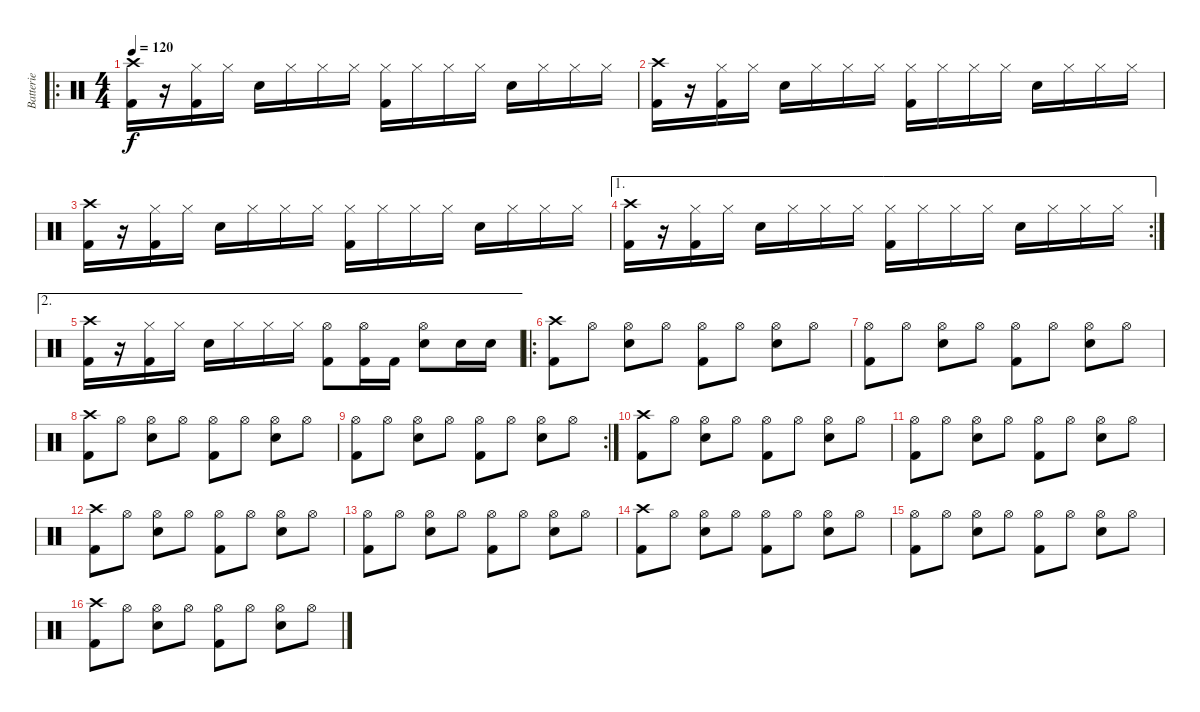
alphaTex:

\track ("Batterie" "Batterie") {instrument percussion}
\staff {score}
\articulation defaults
\ro
\ts (4 4)
\tempo 120
\clef neutral
\ks c
("Crash high (hit)" "Kick (hit) 2").16{dy f} r.16 ("Hi-Hat (closed)" "Kick (hit) 2").16 "Hi-Hat (closed)".16 "Snare (hit) 2".16 "Hi-Hat (closed)".16 "Hi-Hat (closed)".16 "Hi-Hat (closed)".16 ("Hi-Hat (closed)" "Kick (hit) 2").16 "Hi-Hat (closed)".16 "Hi-Hat (closed)".16 "Hi-Hat (closed)".16 "Snare (hit) 2".16 "Hi-Hat (closed)".16 "Hi-Hat (closed)".16 "Hi-Hat (closed)".16 |
("Crash high (hit)" "Kick (hit) 2").16 r.16 ("Hi-Hat (closed)" "Kick (hit) 2").16 "Hi-Hat (closed)".16 "Snare (hit) 2".16 "Hi-Hat (closed)".16 "Hi-Hat (closed)".16 "Hi-Hat (closed)".16 ("Hi-Hat (closed)" "Kick (hit) 2").16 "Hi-Hat (closed)".16 "Hi-Hat (closed)".16 "Hi-Hat (closed)".16 "Snare (hit) 2".16 "Hi-Hat (closed)".16 "Hi-Hat (closed)".16 "Hi-Hat (closed)".16 |
("Crash high (hit)" "Kick (hit) 2").16 r.16 ("Hi-Hat (closed)" "Kick (hit) 2").16 "Hi-Hat (closed)".16 "Snare (hit) 2".16 "Hi-Hat (closed)".16 "Hi-Hat (closed)".16 "Hi-Hat (closed)".16 ("Hi-Hat (closed)" "Kick (hit) 2").16 "Hi-Hat (closed)".16 "Hi-Hat (closed)".16 "Hi-Hat (closed)".16 "Snare (hit) 2".16 "Hi-Hat (closed)".16 "Hi-Hat (closed)".16 "Hi-Hat (closed)".16 |
\ae 1
\rc 2
("Crash high (hit)" "Kick (hit) 2").16 r.16 ("Hi-Hat (closed)" "Kick (hit) 2").16 "Hi-Hat (closed)".16 "Snare (hit) 2".16 "Hi-Hat (closed)".16 "Hi-Hat (closed)".16 "Hi-Hat (closed)".16 ("Hi-Hat (closed)" "Kick (hit) 2").16 "Hi-Hat (closed)".16 "Hi-Hat (closed)".16 "Hi-Hat (closed)".16 "Snare (hit) 2".16 "Hi-Hat (closed)".16 "Hi-Hat (closed)".16 "Hi-Hat (closed)".16 |
\ae 2
("Crash high (hit)" "Kick (hit) 2").16 r.16 ("Hi-Hat (closed)" "Kick (hit) 2").16 "Hi-Hat (closed)".16 "Snare (hit) 2".16 "Hi-Hat (closed)".16 "Hi-Hat (closed)".16 "Hi-Hat (closed)".16 ("Hi-Hat (open)" "Kick (hit) 2").8 ("Hi-Hat (open)" "Kick (hit) 2").16 "Kick (hit) 2".16 ("Hi-Hat (open)" "Snare (hit) 2").8 "Snare (hit) 2".16 "Snare (hit) 2".16 |
\ro
("Crash high (hit)" "Kick (hit) 2").8 "Hi-Hat (open)".8 ("Hi-Hat (open)" "Snare (hit) 2").8 "Hi-Hat (open)".8 ("Hi-Hat (open)" "Kick (hit) 2").8 "Hi-Hat (open)".8 ("Hi-Hat (open)" "Snare (hit) 2").8 "Hi-Hat (open)".8 |
("Hi-Hat (open)" "Kick (hit) 2").8 "Hi-Hat (open)".8 ("Hi-Hat (open)" "Snare (hit) 2").8 "Hi-Hat (open)".8 ("Hi-Hat (open)" "Kick (hit) 2").8 "Hi-Hat (open)".8 ("Hi-Hat (open)" "Snare (hit) 2").8 "Hi-Hat (open)".8 |
("Crash high (hit)" "Kick (hit) 2").8 "Hi-Hat (open)".8 ("Hi-Hat (open)" "Snare (hit) 2").8 "Hi-Hat (open)".8 ("Hi-Hat (open)" "Kick (hit) 2").8 "Hi-Hat (open)".8 ("Hi-Hat (open)" "Snare (hit) 2").8 "Hi-Hat (open)".8 |
\rc 2
("Hi-Hat (open)" "Kick (hit) 2").8 "Hi-Hat (open)".8 ("Hi-Hat (open)" "Snare (hit) 2").8 "Hi-Hat (open)".8 ("Hi-Hat (open)" "Kick (hit) 2").8 "Hi-Hat (open)".8 ("Hi-Hat (open)" "Snare (hit) 2").8 "Hi-Hat (open)".8 |
("Crash high (hit)" "Kick (hit) 2").8 "Hi-Hat (open)".8 ("Hi-Hat (open)" "Snare (hit) 2").8 "Hi-Hat (open)".8 ("Hi-Hat (open)" "Kick (hit) 2").8 "Hi-Hat (open)".8 ("Hi-Hat (open)" "Snare (hit) 2").8 "Hi-Hat (open)".8 |
("Hi-Hat (open)" "Kick (hit) 2").8 "Hi-Hat (open)".8 ("Hi-Hat (open)" "Snare (hit) 2").8 "Hi-Hat (open)".8 ("Hi-Hat (open)" "Kick (hit) 2").8 "Hi-Hat (open)".8 ("Hi-Hat (open)" "Snare (hit) 2").8 "Hi-Hat (open)".8 |
("Crash high (hit)" "Kick (hit) 2").8 "Hi-Hat (open)".8 ("Hi-Hat (open)" "Snare (hit) 2").8 "Hi-Hat (open)".8 ("Hi-Hat (open)" "Kick (hit) 2").8 "Hi-Hat (open)".8 ("Hi-Hat (open)" "Snare (hit) 2").8 "Hi-Hat (open)".8 |
("Hi-Hat (open)" "Kick (hit) 2").8 "Hi-Hat (open)".8 ("Hi-Hat (open)" "Snare (hit) 2").8 "Hi-Hat (open)".8 ("Hi-Hat (open)" "Kick (hit) 2").8 "Hi-Hat (open)".8 ("Hi-Hat (open)" "Snare (hit) 2").8 "Hi-Hat (open)".8 |
("Crash high (hit)" "Kick (hit) 2").8 "Hi-Hat (open)".8 ("Hi-Hat (open)" "Snare (hit) 2").8 "Hi-Hat (open)".8 ("Hi-Hat (open)" "Kick (hit) 2").8 "Hi-Hat (open)".8 ("Hi-Hat (open)" "Snare (hit) 2").8 "Hi-Hat (open)".8 |
("Hi-Hat (open)" "Kick (hit) 2").8 "Hi-Hat (open)".8 ("Hi-Hat (open)" "Snare (hit) 2").8 "Hi-Hat (open)".8 ("Hi-Hat (open)" "Kick (hit) 2").8 "Hi-Hat (open)".8 ("Hi-Hat (open)" "Snare (hit) 2").8 "Hi-Hat (open)".8 |
("Crash high (hit)" "Kick (hit) 2").8 "Hi-Hat (open)".8 ("Hi-Hat (open)" "Snare (hit) 2").8 "Hi-Hat (open)".8 ("Hi-Hat (open)" "Kick (hit) 2").8 "Hi-Hat (open)".8 ("Hi-Hat (open)" "Snare (hit) 2").8 "Hi-Hat (open)".8
